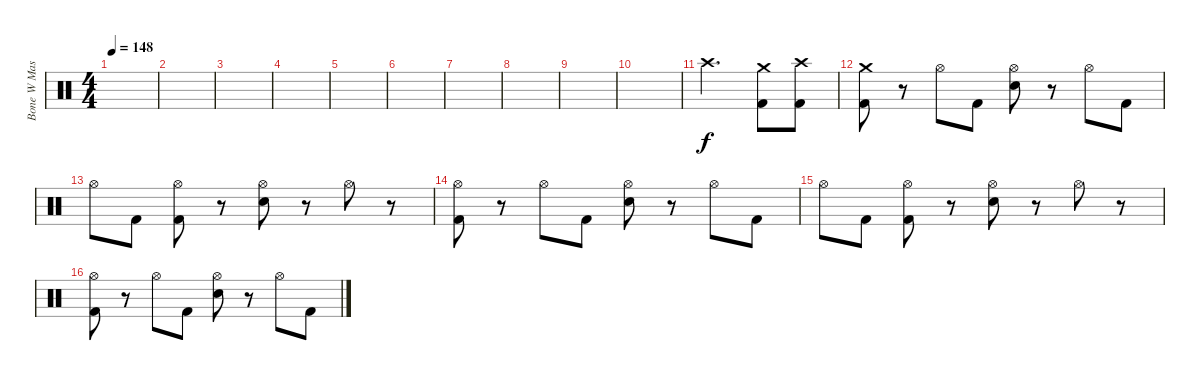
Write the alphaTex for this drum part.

\track ("Bone W Mashine" "Bone W Mas") {instrument percussion}
\staff {score}
\articulation defaults
\ts (4 4)
\tempo 148
\clef neutral
\ks c
|
|
|
|
|
|
|
|
|
|
"Crash high (hit)".2{d} ("Crash medium (hit)" "Kick (hit) 2").8 ("Crash high (hit)" "Kick (hit) 2").8 |
("Crash medium (hit)" "Kick (hit) 2").8 r.8 "Hi-Hat (open)".8 "Kick (hit) 2".8 ("Hi-Hat (open)" "Electric Snare (hit)").8 r.8 "Hi-Hat (open)".8 "Kick (hit) 2".8 |
"Hi-Hat (open)".8 "Kick (hit) 2".8 ("Hi-Hat (open)" "Kick (hit) 2").8 r.8 ("Hi-Hat (open)" "Electric Snare (hit)").8 r.8 "Hi-Hat (open)".8 r.8 |
("Hi-Hat (open)" "Kick (hit) 2").8 r.8 "Hi-Hat (open)".8 "Kick (hit) 2".8 ("Hi-Hat (open)" "Electric Snare (hit)").8 r.8 "Hi-Hat (open)".8 "Kick (hit) 2".8 |
"Hi-Hat (open)".8 "Kick (hit) 2".8 ("Hi-Hat (open)" "Kick (hit) 2").8 r.8 ("Hi-Hat (open)" "Electric Snare (hit)").8 r.8 "Hi-Hat (open)".8 r.8 |
("Hi-Hat (open)" "Kick (hit) 2").8 r.8 "Hi-Hat (open)".8 "Kick (hit) 2".8 ("Hi-Hat (open)" "Electric Snare (hit)").8 r.8 "Hi-Hat (open)".8 "Kick (hit) 2".8
